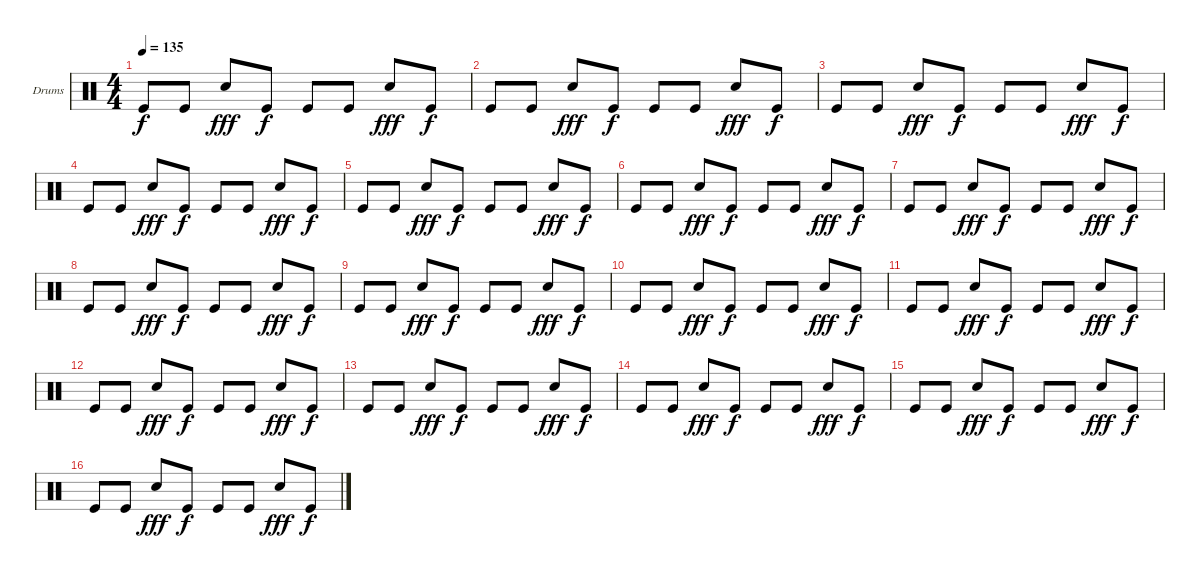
\defaultSystemsLayout 4
\bracketExtendMode groupsimilarinstruments
\firstSystemTrackNameOrientation horizontal
\otherSystemsTrackNameOrientation horizontal
\track ("Helders" "Drums") {instrument percussion}
\staff {score}
\articulation defaults
\ts (4 4)
\tempo 135
\clef neutral
\ks c "Kick (hit)".8{dy f} "Kick (hit)".8 "Snare (hit) 2".8{dy fff} "Kick (hit)".8{dy f} "Kick (hit)".8 "Kick (hit)".8 "Snare (hit) 2".8{dy fff} "Kick (hit)".8{dy f}
|
"Kick (hit)".8 "Kick (hit)".8 "Snare (hit) 2".8{dy fff} "Kick (hit)".8{dy f} "Kick (hit)".8 "Kick (hit)".8 "Snare (hit) 2".8{dy fff} "Kick (hit)".8{dy f} |
"Kick (hit)".8 "Kick (hit)".8 "Snare (hit) 2".8{dy fff} "Kick (hit)".8{dy f} "Kick (hit)".8 "Kick (hit)".8 "Snare (hit) 2".8{dy fff} "Kick (hit)".8{dy f} |
"Kick (hit)".8 "Kick (hit)".8 "Snare (hit) 2".8{dy fff} "Kick (hit)".8{dy f} "Kick (hit)".8 "Kick (hit)".8 "Snare (hit) 2".8{dy fff} "Kick (hit)".8{dy f} |
"Kick (hit)".8 "Kick (hit)".8 "Snare (hit) 2".8{dy fff} "Kick (hit)".8{dy f} "Kick (hit)".8 "Kick (hit)".8 "Snare (hit) 2".8{dy fff} "Kick (hit)".8{dy f} |
"Kick (hit)".8 "Kick (hit)".8 "Snare (hit) 2".8{dy fff} "Kick (hit)".8{dy f} "Kick (hit)".8 "Kick (hit)".8 "Snare (hit) 2".8{dy fff} "Kick (hit)".8{dy f} |
"Kick (hit)".8 "Kick (hit)".8 "Snare (hit) 2".8{dy fff} "Kick (hit)".8{dy f} "Kick (hit)".8 "Kick (hit)".8 "Snare (hit) 2".8{dy fff} "Kick (hit)".8{dy f} |
"Kick (hit)".8 "Kick (hit)".8 "Snare (hit) 2".8{dy fff} "Kick (hit)".8{dy f} "Kick (hit)".8 "Kick (hit)".8 "Snare (hit) 2".8{dy fff} "Kick (hit)".8{dy f} |
"Kick (hit)".8 "Kick (hit)".8 "Snare (hit) 2".8{dy fff} "Kick (hit)".8{dy f} "Kick (hit)".8 "Kick (hit)".8 "Snare (hit) 2".8{dy fff} "Kick (hit)".8{dy f} |
"Kick (hit)".8 "Kick (hit)".8 "Snare (hit) 2".8{dy fff} "Kick (hit)".8{dy f} "Kick (hit)".8 "Kick (hit)".8 "Snare (hit) 2".8{dy fff} "Kick (hit)".8{dy f} |
"Kick (hit)".8 "Kick (hit)".8 "Snare (hit) 2".8{dy fff} "Kick (hit)".8{dy f} "Kick (hit)".8 "Kick (hit)".8 "Snare (hit) 2".8{dy fff} "Kick (hit)".8{dy f} |
"Kick (hit)".8 "Kick (hit)".8 "Snare (hit) 2".8{dy fff} "Kick (hit)".8{dy f} "Kick (hit)".8 "Kick (hit)".8 "Snare (hit) 2".8{dy fff} "Kick (hit)".8{dy f} |
"Kick (hit)".8 "Kick (hit)".8 "Snare (hit) 2".8{dy fff} "Kick (hit)".8{dy f} "Kick (hit)".8 "Kick (hit)".8 "Snare (hit) 2".8{dy fff} "Kick (hit)".8{dy f} |
"Kick (hit)".8 "Kick (hit)".8 "Snare (hit) 2".8{dy fff} "Kick (hit)".8{dy f} "Kick (hit)".8 "Kick (hit)".8 "Snare (hit) 2".8{dy fff} "Kick (hit)".8{dy f} |
"Kick (hit)".8 "Kick (hit)".8 "Snare (hit) 2".8{dy fff} "Kick (hit)".8{dy f} "Kick (hit)".8 "Kick (hit)".8 "Snare (hit) 2".8{dy fff} "Kick (hit)".8{dy f} |
"Kick (hit)".8 "Kick (hit)".8 "Snare (hit) 2".8{dy fff} "Kick (hit)".8{dy f} "Kick (hit)".8 "Kick (hit)".8 "Snare (hit) 2".8{dy fff} "Kick (hit)".8{dy f}
